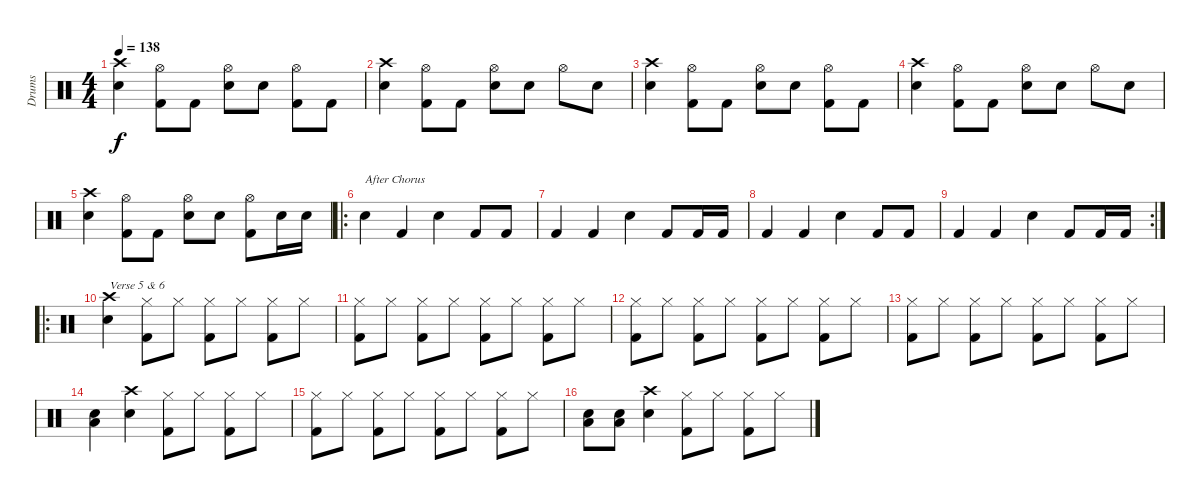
\track ("Drums" "Drums") {instrument percussion}
\staff {score}
\articulation defaults
\ts (4 4)
\tempo 138
\clef neutral
\ks c
("Electric Snare (hit)" "Crash high (hit)").4{dy f} ("Kick (hit) 2" "Hi-Hat (open)").8 "Kick (hit) 2".8 ("Electric Snare (hit)" "Hi-Hat (open)").8 "Electric Snare (hit)".8 ("Kick (hit) 2" "Hi-Hat (open)").8 "Kick (hit) 2".8 |
("Electric Snare (hit)" "Crash high (hit)").4 ("Kick (hit) 2" "Hi-Hat (open)").8 "Kick (hit) 2".8 ("Electric Snare (hit)" "Hi-Hat (open)").8 "Electric Snare (hit)".8 "Hi-Hat (open)".8 "Electric Snare (hit)".8 |
("Electric Snare (hit)" "Crash high (hit)").4 ("Kick (hit) 2" "Hi-Hat (open)").8 "Kick (hit) 2".8 ("Electric Snare (hit)" "Hi-Hat (open)").8 "Electric Snare (hit)".8 ("Kick (hit) 2" "Hi-Hat (open)").8 "Kick (hit) 2".8 |
("Electric Snare (hit)" "Crash high (hit)").4 ("Kick (hit) 2" "Hi-Hat (open)").8 "Kick (hit) 2".8 ("Electric Snare (hit)" "Hi-Hat (open)").8 "Electric Snare (hit)".8 "Hi-Hat (open)".8 "Electric Snare (hit)".8 |
("Electric Snare (hit)" "Crash high (hit)").4 ("Kick (hit) 2" "Hi-Hat (open)").8 "Kick (hit) 2".8 ("Electric Snare (hit)" "Hi-Hat (open)").8 "Electric Snare (hit)".8 ("Kick (hit) 2" "Hi-Hat (open)").8 "Electric Snare (hit)".16 "Snare (hit) 2".16 |
\ro "Snare (hit) 2".4{txt "After Chorus"} "Kick (hit) 2".4 "Snare (hit) 2".4 "Kick (hit) 2".8 "Kick (hit) 2".8
|
"Kick (hit) 2".4 "Kick (hit) 2".4 "Snare (hit) 2".4 "Kick (hit) 2".8 "Kick (hit) 2".16 "Kick (hit) 2".16 |
"Kick (hit) 2".4 "Kick (hit) 2".4 "Snare (hit) 2".4 "Kick (hit) 2".8 "Kick (hit) 2".8 |
\rc 2 "Kick (hit) 2".4 "Kick (hit) 2".4 "Snare (hit) 2".4 "Kick (hit) 2".8 "Kick (hit) 2".16 "Kick (hit) 2".16
|
\ro
("Electric Snare (hit)" "Crash high (hit)").4{txt "Verse 5 & 6"} ("Hi-Hat (closed)" "Kick (hit) 2").8 "Hi-Hat (closed)".8 ("Hi-Hat (closed)" "Kick (hit) 2").8 "Hi-Hat (closed)".8 ("Hi-Hat (closed)" "Kick (hit) 2").8 "Hi-Hat (closed)".8 |
("Hi-Hat (closed)" "Kick (hit) 2").8 "Hi-Hat (closed)".8 ("Hi-Hat (closed)" "Kick (hit) 2").8 "Hi-Hat (closed)".8 ("Hi-Hat (closed)" "Kick (hit) 2").8 "Hi-Hat (closed)".8 ("Hi-Hat (closed)" "Kick (hit) 2").8 "Hi-Hat (closed)".8 |
("Hi-Hat (closed)" "Kick (hit) 2").8 "Hi-Hat (closed)".8 ("Hi-Hat (closed)" "Kick (hit) 2").8 "Hi-Hat (closed)".8 ("Hi-Hat (closed)" "Kick (hit) 2").8 "Hi-Hat (closed)".8 ("Hi-Hat (closed)" "Kick (hit) 2").8 "Hi-Hat (closed)".8 |
("Hi-Hat (closed)" "Kick (hit) 2").8 "Hi-Hat (closed)".8 ("Hi-Hat (closed)" "Kick (hit) 2").8 "Hi-Hat (closed)".8 ("Hi-Hat (closed)" "Kick (hit) 2").8 "Hi-Hat (closed)".8 ("Hi-Hat (closed)" "Kick (hit) 2").8 "Hi-Hat (closed)".8 |
("Low Tom (hit)" "Electric Snare (hit)").4 ("Electric Snare (hit)" "Crash high (hit)").4 ("Hi-Hat (closed)" "Kick (hit) 2").8 "Hi-Hat (closed)".8 ("Hi-Hat (closed)" "Kick (hit) 2").8 "Hi-Hat (closed)".8 |
("Hi-Hat (closed)" "Kick (hit) 2").8 "Hi-Hat (closed)".8 ("Hi-Hat (closed)" "Kick (hit) 2").8 "Hi-Hat (closed)".8 ("Hi-Hat (closed)" "Kick (hit) 2").8 "Hi-Hat (closed)".8 ("Hi-Hat (closed)" "Kick (hit) 2").8 "Hi-Hat (closed)".8 |
("Low Tom (hit)" "Electric Snare (hit)").8 ("Low Tom (hit)" "Electric Snare (hit)").8 ("Electric Snare (hit)" "Crash high (hit)").4 ("Hi-Hat (closed)" "Kick (hit) 2").8 "Hi-Hat (closed)".8 ("Hi-Hat (closed)" "Kick (hit) 2").8 "Hi-Hat (closed)".8
